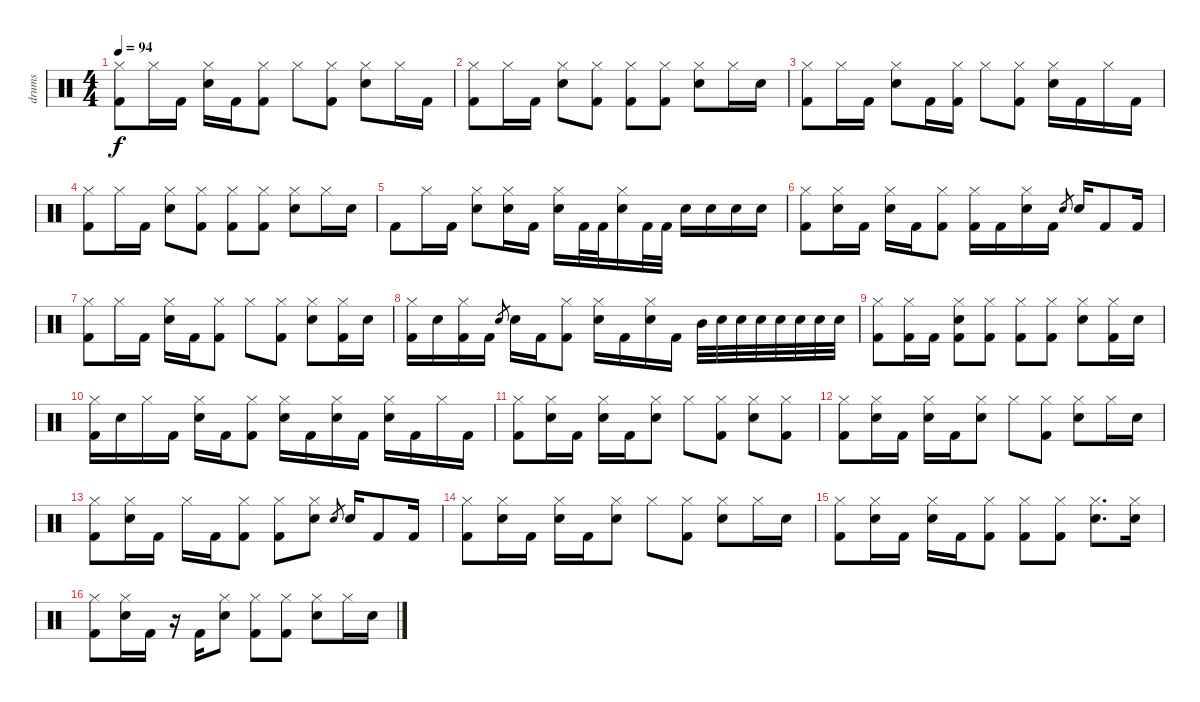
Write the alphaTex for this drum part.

\track ("drums" "drums") {instrument percussion}
\staff {score}
\articulation defaults
\ts (4 4)
\tempo 94
\clef neutral
\ks c
("Hi-Hat (closed)" "Kick (hit) 2").8{dy f} "Hi-Hat (closed)".16 "Kick (hit) 2".16 ("Hi-Hat (closed)" "Snare (hit) 2").16 "Kick (hit) 2".16 ("Hi-Hat (closed)" "Kick (hit) 2").8 "Hi-Hat (closed)".8 ("Hi-Hat (closed)" "Kick (hit) 2").8 ("Hi-Hat (closed)" "Snare (hit) 2").8 "Hi-Hat (closed)".16 "Kick (hit) 2".16 |
("Kick (hit) 2" "Hi-Hat (closed)").8 "Hi-Hat (closed)".16 "Kick (hit) 2".16 ("Hi-Hat (closed)" "Snare (hit) 2").8 ("Kick (hit) 2" "Hi-Hat (closed)").8 ("Kick (hit) 2" "Hi-Hat (closed)").8 ("Hi-Hat (closed)" "Kick (hit) 2").8 ("Hi-Hat (closed)" "Snare (hit) 2").8 "Hi-Hat (closed)".16 "Snare (hit) 2".16 |
("Hi-Hat (closed)" "Kick (hit) 2").8 "Hi-Hat (closed)".16 "Kick (hit) 2".16 ("Hi-Hat (closed)" "Snare (hit) 2").8 "Kick (hit) 2".16 ("Hi-Hat (closed)" "Kick (hit) 2").16 "Hi-Hat (closed)".8 ("Hi-Hat (closed)" "Kick (hit) 2").8 ("Hi-Hat (closed)" "Snare (hit) 2").16 "Kick (hit) 2".16 "Hi-Hat (closed)".16 "Kick (hit) 2".16 |
("Kick (hit) 2" "Hi-Hat (closed)").8 "Hi-Hat (closed)".16 "Kick (hit) 2".16 ("Hi-Hat (closed)" "Snare (hit) 2").8 ("Kick (hit) 2" "Hi-Hat (closed)").8 ("Kick (hit) 2" "Hi-Hat (closed)").8 ("Hi-Hat (closed)" "Kick (hit) 2").8 ("Hi-Hat (closed)" "Snare (hit) 2").8 "Hi-Hat (closed)".16 "Snare (hit) 2".16 |
"Kick (hit) 2".8 "Hi-Hat (closed)".16 "Kick (hit) 2".16 ("Hi-Hat (closed)" "Snare (hit) 2").8 ("Hi-Hat (closed)" "Snare (hit) 2").16 "Kick (hit) 2".16 ("Snare (hit) 2" "Hi-Hat (closed)").16 "Kick (hit) 2".32 "Kick (hit) 2".32 ("Snare (hit) 2" "Hi-Hat (closed)").16 "Kick (hit) 2".32 "Kick (hit) 2".32 "Snare (hit) 2".16 "Snare (hit) 2".16 "Snare (hit) 2".16 "Snare (hit) 2".16 |
("Hi-Hat (closed)" "Kick (hit) 2").8 ("Hi-Hat (closed)" "Snare (hit) 2").16 "Kick (hit) 2".16 ("Hi-Hat (closed)" "Snare (hit) 2").16 "Kick (hit) 2".16 ("Kick (hit) 2" "Hi-Hat (closed)").8 ("Hi-Hat (closed)" "Kick (hit) 2").16 "Kick (hit) 2".16 ("Hi-Hat (closed)" "Snare (hit) 2").16 "Kick (hit) 2".16 "Snare (hit) 2".8{gr} "Snare (hit) 2".16 "Kick (hit) 2".8 "Kick (hit) 2".16 |
("Hi-Hat (closed)" "Kick (hit) 2").8 "Hi-Hat (closed)".16 "Kick (hit) 2".16 ("Hi-Hat (closed)" "Snare (hit) 2").16 "Kick (hit) 2".16 ("Hi-Hat (closed)" "Kick (hit) 2").8 "Hi-Hat (closed)".8 ("Kick (hit) 2" "Hi-Hat (closed)").8 ("Hi-Hat (closed)" "Snare (hit) 2").8 ("Hi-Hat (closed)" "Kick (hit) 2").16 "Snare (hit) 2".16 |
("Hi-Hat (closed)" "Kick (hit) 2").16 "Snare (hit) 2".16 ("Kick (hit) 2" "Hi-Hat (closed)").16 "Kick (hit) 2".16 "Snare (hit) 2".8{gr} "Snare (hit) 2".16 "Kick (hit) 2".16 ("Hi-Hat (closed)" "Kick (hit) 2").8 ("Hi-Hat (closed)" "Snare (hit) 2").16 "Kick (hit) 2".16 ("Hi-Hat (closed)" "Snare (hit) 2").16 "Kick (hit) 2".16 "Mid Tom (hit)".32 "Snare (hit) 2".32 "Snare (hit) 2".32 "Snare (hit) 2".32 "Snare (hit) 2".32 "Snare (hit) 2".32 "Snare (hit) 2".32 "Snare (hit) 2".32 |
("Kick (hit) 2" "Hi-Hat (closed)").8 ("Hi-Hat (closed)" "Kick (hit) 2").16 "Kick (hit) 2".16 ("Kick (hit) 2" "Hi-Hat (closed)" "Snare (hit) 2").8 ("Kick (hit) 2" "Hi-Hat (closed)").8 ("Kick (hit) 2" "Hi-Hat (closed)").8 ("Hi-Hat (closed)" "Kick (hit) 2").8 ("Hi-Hat (closed)" "Snare (hit) 2").8 ("Kick (hit) 2" "Hi-Hat (closed)").16 "Snare (hit) 2".16 |
("Hi-Hat (closed)" "Kick (hit) 2").16 "Snare (hit) 2".16 "Hi-Hat (closed)".16 "Kick (hit) 2".16 ("Snare (hit) 2" "Hi-Hat (closed)").16 "Kick (hit) 2".16 ("Hi-Hat (closed)" "Kick (hit) 2").8 ("Hi-Hat (closed)" "Snare (hit) 2").16 "Kick (hit) 2".16 ("Hi-Hat (closed)" "Snare (hit) 2").16 "Kick (hit) 2".16 ("Hi-Hat (closed)" "Snare (hit) 2").16 "Kick (hit) 2".16 "Hi-Hat (closed)".16 "Kick (hit) 2".16 |
("Hi-Hat (closed)" "Kick (hit) 2").8 ("Snare (hit) 2" "Hi-Hat (closed)").16 "Kick (hit) 2".16 ("Hi-Hat (closed)" "Snare (hit) 2").16 "Kick (hit) 2".16 ("Hi-Hat (closed)" "Snare (hit) 2").8 "Hi-Hat (closed)".8 ("Hi-Hat (closed)" "Kick (hit) 2").8 ("Hi-Hat (closed)" "Snare (hit) 2").8 ("Hi-Hat (closed)" "Kick (hit) 2").8 |
("Hi-Hat (closed)" "Kick (hit) 2").8 ("Snare (hit) 2" "Hi-Hat (closed)").16 "Kick (hit) 2".16 ("Hi-Hat (closed)" "Snare (hit) 2").16 "Kick (hit) 2".16 ("Hi-Hat (closed)" "Snare (hit) 2").8 "Hi-Hat (closed)".8 ("Hi-Hat (closed)" "Kick (hit) 2").8 ("Hi-Hat (closed)" "Snare (hit) 2").8 "Hi-Hat (closed)".16 "Snare (hit) 2".16 |
("Hi-Hat (closed)" "Kick (hit) 2").8 ("Hi-Hat (closed)" "Snare (hit) 2").16 "Kick (hit) 2".16 "Hi-Hat (closed)".16 "Kick (hit) 2".16 ("Hi-Hat (closed)" "Kick (hit) 2").8 ("Hi-Hat (closed)" "Kick (hit) 2").8 ("Snare (hit) 2" "Hi-Hat (closed)").8 "Snare (hit) 2".8{gr} "Snare (hit) 2".16 "Kick (hit) 2".8 "Kick (hit) 2".16 |
("Hi-Hat (closed)" "Kick (hit) 2").8 ("Snare (hit) 2" "Hi-Hat (closed)").16 "Kick (hit) 2".16 ("Hi-Hat (closed)" "Snare (hit) 2").16 "Kick (hit) 2".16 ("Hi-Hat (closed)" "Snare (hit) 2").8 "Hi-Hat (closed)".8 ("Hi-Hat (closed)" "Kick (hit) 2").8 ("Hi-Hat (closed)" "Snare (hit) 2").8 "Hi-Hat (closed)".16 "Snare (hit) 2".16 |
("Hi-Hat (closed)" "Kick (hit) 2").8 ("Snare (hit) 2" "Hi-Hat (closed)").16 "Kick (hit) 2".16 ("Hi-Hat (closed)" "Snare (hit) 2").16 "Kick (hit) 2".16 ("Hi-Hat (closed)" "Kick (hit) 2").8 ("Hi-Hat (closed)" "Kick (hit) 2").8 ("Hi-Hat (closed)" "Kick (hit) 2").8 ("Hi-Hat (closed)" "Snare (hit) 2").8{d} ("Hi-Hat (closed)" "Snare (hit) 2").16 |
("Hi-Hat (closed)" "Kick (hit) 2").8 ("Snare (hit) 2" "Hi-Hat (closed)").16 "Kick (hit) 2".16 r.16 "Kick (hit) 2".16 ("Hi-Hat (closed)" "Snare (hit) 2").8 ("Hi-Hat (closed)" "Kick (hit) 2").8 ("Hi-Hat (closed)" "Kick (hit) 2").8 ("Hi-Hat (closed)" "Snare (hit) 2").8 "Hi-Hat (closed)".16 "Snare (hit) 2".16
